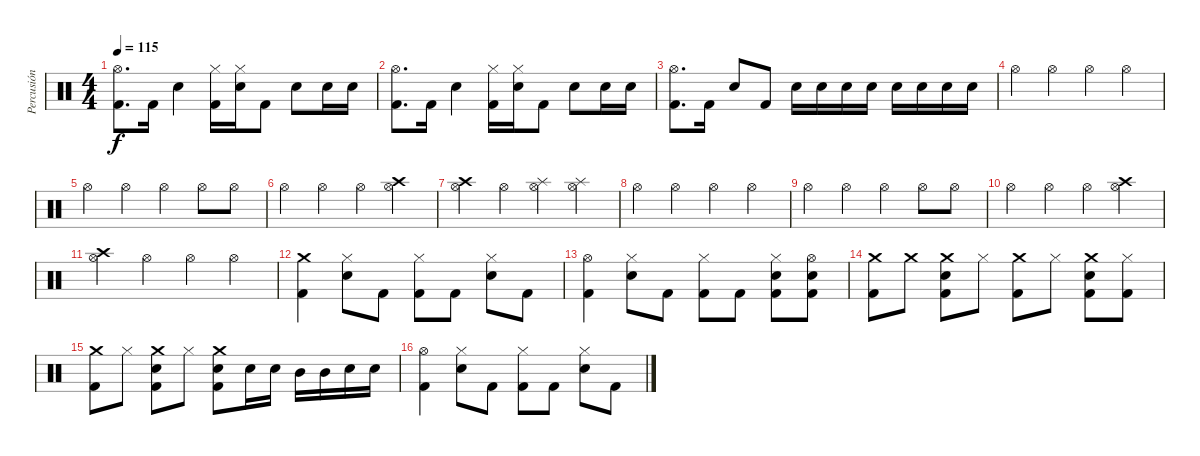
\track ("Percusión" "Percusión") {instrument percussion}
\staff {score}
\articulation defaults
\ts (4 4)
\tempo 115
\clef neutral
\ks c
("Hi-Hat (open)" "Kick (hit) 2").8{d dy f} "Kick (hit) 2".16 "Electric Snare (hit)".4 ("Hi-Hat (closed)" "Kick (hit) 2").16 ("Hi-Hat (closed)" "Electric Snare (hit)").16 "Kick (hit) 2".8 "Electric Snare (hit)".8 "Electric Snare (hit)".16 "Electric Snare (hit)".16 |
("Hi-Hat (open)" "Kick (hit) 2").8{d} "Kick (hit) 2".16 "Electric Snare (hit)".4 ("Hi-Hat (closed)" "Kick (hit) 2").16 ("Hi-Hat (closed)" "Electric Snare (hit)").16 "Kick (hit) 2".8 "Electric Snare (hit)".8 "Electric Snare (hit)".16 "Electric Snare (hit)".16 |
("Hi-Hat (open)" "Kick (hit) 2").8{d} "Kick (hit) 2".16 "Electric Snare (hit)".8 "Kick (hit) 2".8 "Electric Snare (hit)".16 "Electric Snare (hit)".16 "Electric Snare (hit)".16 "Electric Snare (hit)".16 "Electric Snare (hit)".16 "Electric Snare (hit)".16 "Electric Snare (hit)".16 "Electric Snare (hit)".16 |
"Hi-Hat (open)".4 "Hi-Hat (open)".4 "Hi-Hat (open)".4 "Hi-Hat (open)".4 |
"Hi-Hat (open)".4 "Hi-Hat (open)".4 "Hi-Hat (open)".4 "Hi-Hat (open)".8 "Hi-Hat (open)".8 |
"Hi-Hat (open)".4 "Hi-Hat (open)".4 "Hi-Hat (open)".4 ("Hi-Hat (open)" "Crash high (hit)").4 |
("Hi-Hat (open)" "Crash high (hit)").4 "Hi-Hat (open)".4 ("Hi-Hat (open)" "Splash (hit)").4 ("Hi-Hat (open)" "Splash (hit)").4 |
"Hi-Hat (open)".4 "Hi-Hat (open)".4 "Hi-Hat (open)".4 "Hi-Hat (open)".4 |
"Hi-Hat (open)".4 "Hi-Hat (open)".4 "Hi-Hat (open)".4 "Hi-Hat (open)".8 "Hi-Hat (open)".8 |
"Hi-Hat (open)".4 "Hi-Hat (open)".4 "Hi-Hat (open)".4 ("Hi-Hat (open)" "Crash high (hit)").4 |
("Hi-Hat (open)" "Crash high (hit)").4 "Hi-Hat (open)".4 "Hi-Hat (open)".4 "Hi-Hat (open)".4 |
("Crash medium (hit)" "Kick (hit) 2").4 ("Hi-Hat (closed)" "Electric Snare (hit)").8 "Kick (hit) 2".8 ("Hi-Hat (closed)" "Kick (hit) 2").8 "Kick (hit) 2".8 ("Hi-Hat (closed)" "Electric Snare (hit)").8 "Kick (hit) 2".8 |
("Hi-Hat (open)" "Kick (hit) 2").4 ("Hi-Hat (closed)" "Electric Snare (hit)").8 "Kick (hit) 2".8 ("Hi-Hat (closed)" "Kick (hit) 2").8 "Kick (hit) 2".8 ("Hi-Hat (closed)" "Snare (hit) 2" "Kick (hit) 2").8 ("Hi-Hat (open)" "Electric Snare (hit)" "Kick (hit) 2").8 |
("Crash medium (hit)" "Kick (hit) 2").8 "Crash medium (hit)".8 ("Crash medium (hit)" "Electric Snare (hit)" "Kick (hit) 2").8 "Hi-Hat (closed)".8 ("Crash medium (hit)" "Kick (hit) 2").8 "Hi-Hat (closed)".8 ("Crash medium (hit)" "Electric Snare (hit)" "Kick (hit) 2").8 ("Hi-Hat (closed)" "Kick (hit) 2").8 |
("Crash medium (hit)" "Kick (hit) 2").8 "Hi-Hat (closed)".8 ("Crash medium (hit)" "Electric Snare (hit)" "Kick (hit) 2").8 "Hi-Hat (closed)".8 ("Crash medium (hit)" "Electric Snare (hit)" "Kick (hit) 2").8 "Electric Snare (hit)".16 "Electric Snare (hit)".16 "Mid Tom (hit)".16 "Mid Tom (hit)".16 "Electric Snare (hit)".16 "Electric Snare (hit)".16 |
("Hi-Hat (open)" "Kick (hit) 2").4 ("Hi-Hat (closed)" "Electric Snare (hit)").8 "Kick (hit) 2".8 ("Hi-Hat (closed)" "Kick (hit) 2").8 "Kick (hit) 2".8 ("Hi-Hat (closed)" "Electric Snare (hit)").8 "Kick (hit) 2".8
